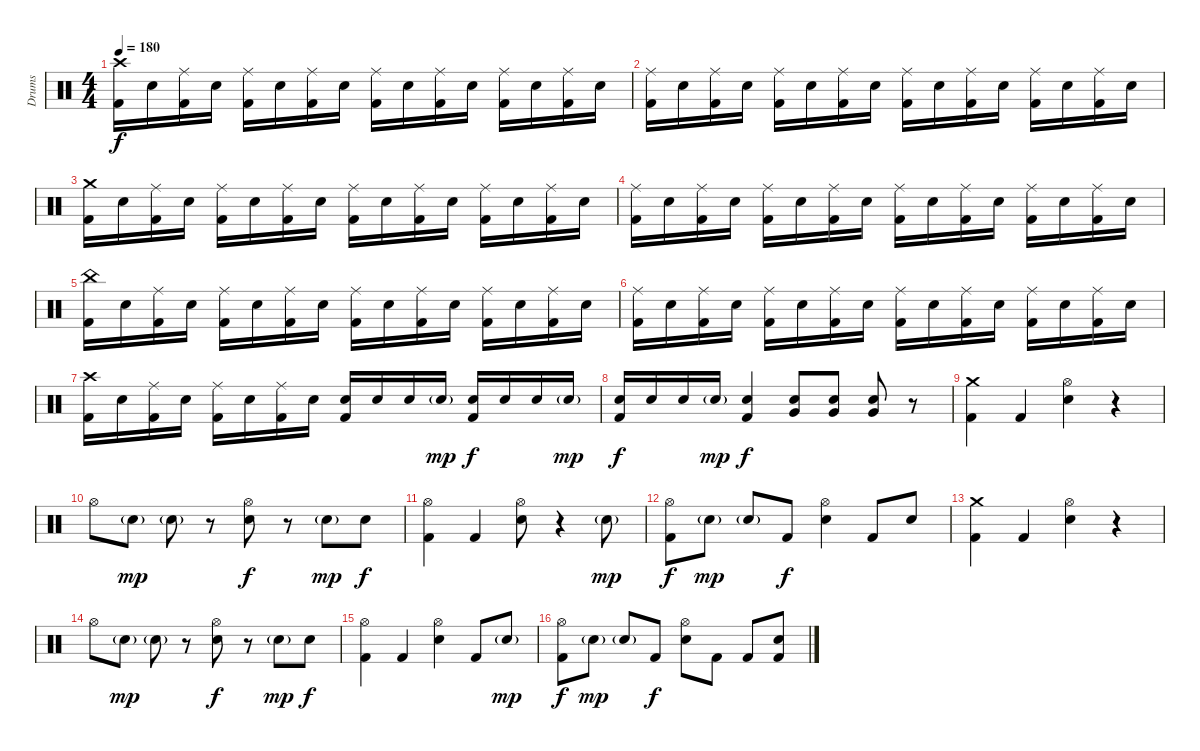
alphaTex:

\track ("Drums" "Drums") {instrument percussion}
\staff {score}
\articulation defaults
\ts (4 4)
\tempo 180
\clef neutral
\ks c
("Crash high (hit)" "Kick (hit) 2").16{dy f} "Electric Snare (hit)".16 ("Ride (middle)" "Kick (hit) 2").16 "Electric Snare (hit)".16 ("Ride (middle)" "Kick (hit) 2").16 "Electric Snare (hit)".16 ("Ride (middle)" "Kick (hit) 2").16 "Electric Snare (hit)".16 ("Ride (middle)" "Kick (hit) 2").16 "Electric Snare (hit)".16 ("Ride (middle)" "Kick (hit) 2").16 "Electric Snare (hit)".16 ("Ride (middle)" "Kick (hit) 2").16 "Electric Snare (hit)".16 ("Ride (middle)" "Kick (hit) 2").16 "Electric Snare (hit)".16 |
("Ride (middle)" "Kick (hit) 2").16 "Electric Snare (hit)".16 ("Ride (middle)" "Kick (hit) 2").16 "Electric Snare (hit)".16 ("Ride (middle)" "Kick (hit) 2").16 "Electric Snare (hit)".16 ("Ride (middle)" "Kick (hit) 2").16 "Electric Snare (hit)".16 ("Ride (middle)" "Kick (hit) 2").16 "Electric Snare (hit)".16 ("Ride (middle)" "Kick (hit) 2").16 "Electric Snare (hit)".16 ("Ride (middle)" "Kick (hit) 2").16 "Electric Snare (hit)".16 ("Ride (middle)" "Kick (hit) 2").16 "Electric Snare (hit)".16 |
("Crash medium (hit)" "Kick (hit) 2").16 "Electric Snare (hit)".16 ("Ride (middle)" "Kick (hit) 2").16 "Electric Snare (hit)".16 ("Ride (middle)" "Kick (hit) 2").16 "Electric Snare (hit)".16 ("Ride (middle)" "Kick (hit) 2").16 "Electric Snare (hit)".16 ("Ride (middle)" "Kick (hit) 2").16 "Electric Snare (hit)".16 ("Ride (middle)" "Kick (hit) 2").16 "Electric Snare (hit)".16 ("Ride (middle)" "Kick (hit) 2").16 "Electric Snare (hit)".16 ("Ride (middle)" "Kick (hit) 2").16 "Electric Snare (hit)".16 |
("Ride (middle)" "Kick (hit) 2").16 "Electric Snare (hit)".16 ("Ride (middle)" "Kick (hit) 2").16 "Electric Snare (hit)".16 ("Ride (middle)" "Kick (hit) 2").16 "Electric Snare (hit)".16 ("Ride (middle)" "Kick (hit) 2").16 "Electric Snare (hit)".16 ("Ride (middle)" "Kick (hit) 2").16 "Electric Snare (hit)".16 ("Ride (middle)" "Kick (hit) 2").16 "Electric Snare (hit)".16 ("Ride (middle)" "Kick (hit) 2").16 "Electric Snare (hit)".16 ("Ride (middle)" "Kick (hit) 2").16 "Electric Snare (hit)".16 |
("China (hit)" "Kick (hit) 2").16 "Electric Snare (hit)".16 ("Ride (middle)" "Kick (hit) 2").16 "Electric Snare (hit)".16 ("Ride (middle)" "Kick (hit) 2").16 "Electric Snare (hit)".16 ("Ride (middle)" "Kick (hit) 2").16 "Electric Snare (hit)".16 ("Ride (middle)" "Kick (hit) 2").16 "Electric Snare (hit)".16 ("Ride (middle)" "Kick (hit) 2").16 "Electric Snare (hit)".16 ("Ride (middle)" "Kick (hit) 2").16 "Electric Snare (hit)".16 ("Ride (middle)" "Kick (hit) 2").16 "Electric Snare (hit)".16 |
("Ride (middle)" "Kick (hit) 2").16 "Electric Snare (hit)".16 ("Ride (middle)" "Kick (hit) 2").16 "Electric Snare (hit)".16 ("Ride (middle)" "Kick (hit) 2").16 "Electric Snare (hit)".16 ("Ride (middle)" "Kick (hit) 2").16 "Electric Snare (hit)".16 ("Ride (middle)" "Kick (hit) 2").16 "Electric Snare (hit)".16 ("Ride (middle)" "Kick (hit) 2").16 "Electric Snare (hit)".16 ("Ride (middle)" "Kick (hit) 2").16 "Electric Snare (hit)".16 ("Ride (middle)" "Kick (hit) 2").16 "Electric Snare (hit)".16 |
("Crash high (hit)" "Kick (hit) 2").16 "Electric Snare (hit)".16 ("Ride (middle)" "Kick (hit) 2").16 "Electric Snare (hit)".16 ("Ride (middle)" "Kick (hit) 2").16 "Electric Snare (hit)".16 ("Ride (middle)" "Kick (hit) 2").16 "Electric Snare (hit)".16 ("Electric Snare (hit)" "Kick (hit) 2").16 "Electric Snare (hit)".16 "Electric Snare (hit)".16 "Electric Snare (hit)"{g}.16{dy mp} ("Electric Snare (hit)" "Kick (hit) 2").16{dy f} "Electric Snare (hit)".16 "Electric Snare (hit)".16 "Electric Snare (hit)"{g}.16{dy mp} |
("Electric Snare (hit)" "Kick (hit) 2").16{dy f} "Electric Snare (hit)".16 "Electric Snare (hit)".16 "Electric Snare (hit)"{g}.16{dy mp} ("Electric Snare (hit)" "Kick (hit) 2").4{dy f} ("Very Low Tom (hit)" "Electric Snare (hit)").8 ("Very Low Tom (hit)" "Electric Snare (hit)").8 ("Very Low Tom (hit)" "Electric Snare (hit)").8 r.8 |
("Crash medium (hit)" "Kick (hit) 2").4 "Kick (hit) 2".4 ("Hi-Hat (open)" "Electric Snare (hit)").4 r.4 |
"Hi-Hat (open)".8 "Electric Snare (hit)"{g}.8{dy mp} "Electric Snare (hit)"{g}.8 r.8 ("Hi-Hat (open)" "Electric Snare (hit)").8{dy f} r.8 "Electric Snare (hit)"{g}.8{dy mp} "Electric Snare (hit)".8{dy f} |
("Hi-Hat (open)" "Kick (hit) 2").4 "Kick (hit) 2".4 ("Hi-Hat (open)" "Electric Snare (hit)").8 r.4 "Electric Snare (hit)"{g}.8{dy mp} |
("Hi-Hat (open)" "Kick (hit) 2").8{dy f} "Electric Snare (hit)"{g}.8{dy mp} "Electric Snare (hit)"{g}.8 "Kick (hit) 2".8{dy f} ("Hi-Hat (open)" "Electric Snare (hit)").4 "Kick (hit) 2".8 "Electric Snare (hit)".8 |
("Crash medium (hit)" "Kick (hit) 2").4 "Kick (hit) 2".4 ("Hi-Hat (open)" "Electric Snare (hit)").4 r.4 |
"Hi-Hat (open)".8 "Electric Snare (hit)"{g}.8{dy mp} "Electric Snare (hit)"{g}.8 r.8 ("Hi-Hat (open)" "Electric Snare (hit)").8{dy f} r.8 "Electric Snare (hit)"{g}.8{dy mp} "Electric Snare (hit)".8{dy f} |
("Hi-Hat (open)" "Kick (hit) 2").4 "Kick (hit) 2".4 ("Hi-Hat (open)" "Electric Snare (hit)").4 "Kick (hit) 2".8 "Electric Snare (hit)"{g}.8{dy mp} |
("Hi-Hat (open)" "Kick (hit) 2").8{dy f} "Electric Snare (hit)"{g}.8{dy mp} "Electric Snare (hit)"{g}.8 "Kick (hit) 2".8{dy f} ("Hi-Hat (open)" "Electric Snare (hit)").8 "Kick (hit) 2".8 "Kick (hit) 2".8 ("Electric Snare (hit)" "Kick (hit) 2").8
